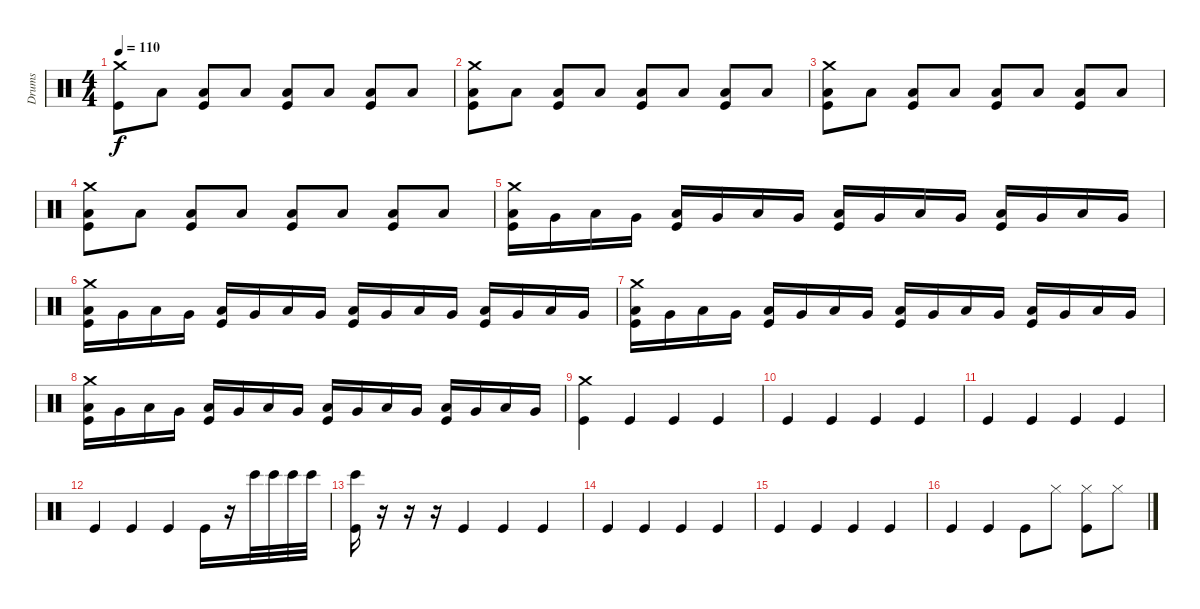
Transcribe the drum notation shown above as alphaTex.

\track ("Drums" "Drums") {instrument percussion}
\staff {score}
\articulation defaults
\ts (4 4)
\tempo 110
\clef neutral
\ks c
("Crash medium (hit)" "Kick (hit)").8{dy f} "Low Tom (hit)".8 ("Kick (hit)" "Low Tom (hit)").8 "Low Tom (hit)".8 ("Kick (hit)" "Low Tom (hit)").8 "Low Tom (hit)".8 ("Kick (hit)" "Low Tom (hit)").8 "Low Tom (hit)".8 |
("Crash medium (hit)" "Kick (hit)" "Low Tom (hit)").8 "Low Tom (hit)".8 ("Kick (hit)" "Low Tom (hit)").8 "Low Tom (hit)".8 ("Kick (hit)" "Low Tom (hit)").8 "Low Tom (hit)".8 ("Kick (hit)" "Low Tom (hit)").8 "Low Tom (hit)".8 |
("Crash medium (hit)" "Kick (hit)" "Low Tom (hit)").8 "Low Tom (hit)".8 ("Kick (hit)" "Low Tom (hit)").8 "Low Tom (hit)".8 ("Kick (hit)" "Low Tom (hit)").8 "Low Tom (hit)".8 ("Kick (hit)" "Low Tom (hit)").8 "Low Tom (hit)".8 |
("Crash medium (hit)" "Kick (hit)" "Low Tom (hit)").8 "Low Tom (hit)".8 ("Kick (hit)" "Low Tom (hit)").8 "Low Tom (hit)".8 ("Kick (hit)" "Low Tom (hit)").8 "Low Tom (hit)".8 ("Kick (hit)" "Low Tom (hit)").8 "Low Tom (hit)".8 |
("Crash medium (hit)" "Kick (hit)" "Low Tom (hit)").16 "Very Low Tom (hit)".16 "Low Tom (hit)".16 "Very Low Tom (hit)".16 ("Kick (hit)" "Low Tom (hit)").16 "Very Low Tom (hit)".16 "Low Tom (hit)".16 "Very Low Tom (hit)".16 ("Kick (hit)" "Low Tom (hit)").16 "Very Low Tom (hit)".16 "Low Tom (hit)".16 "Very Low Tom (hit)".16 ("Kick (hit)" "Low Tom (hit)").16 "Very Low Tom (hit)".16 "Low Tom (hit)".16 "Very Low Tom (hit)".16 |
("Crash medium (hit)" "Kick (hit)" "Low Tom (hit)").16 "Very Low Tom (hit)".16 "Low Tom (hit)".16 "Very Low Tom (hit)".16 ("Kick (hit)" "Low Tom (hit)").16 "Very Low Tom (hit)".16 "Low Tom (hit)".16 "Very Low Tom (hit)".16 ("Kick (hit)" "Low Tom (hit)").16 "Very Low Tom (hit)".16 "Low Tom (hit)".16 "Very Low Tom (hit)".16 ("Kick (hit)" "Low Tom (hit)").16 "Very Low Tom (hit)".16 "Low Tom (hit)".16 "Very Low Tom (hit)".16 |
("Crash medium (hit)" "Kick (hit)" "Low Tom (hit)").16 "Very Low Tom (hit)".16 "Low Tom (hit)".16 "Very Low Tom (hit)".16 ("Kick (hit)" "Low Tom (hit)").16 "Very Low Tom (hit)".16 "Low Tom (hit)".16 "Very Low Tom (hit)".16 ("Kick (hit)" "Low Tom (hit)").16 "Very Low Tom (hit)".16 "Low Tom (hit)".16 "Very Low Tom (hit)".16 ("Kick (hit)" "Low Tom (hit)").16 "Very Low Tom (hit)".16 "Low Tom (hit)".16 "Very Low Tom (hit)".16 |
("Crash medium (hit)" "Kick (hit)" "Low Tom (hit)").16 "Very Low Tom (hit)".16 "Low Tom (hit)".16 "Very Low Tom (hit)".16 ("Kick (hit)" "Low Tom (hit)").16 "Very Low Tom (hit)".16 "Low Tom (hit)".16 "Very Low Tom (hit)".16 ("Kick (hit)" "Low Tom (hit)").16 "Very Low Tom (hit)".16 "Low Tom (hit)".16 "Very Low Tom (hit)".16 ("Kick (hit)" "Low Tom (hit)").16 "Very Low Tom (hit)".16 "Low Tom (hit)".16 "Very Low Tom (hit)".16 |
("Crash medium (hit)" "Kick (hit)").4 "Kick (hit)".4 "Kick (hit)".4 "Kick (hit)".4 |
"Kick (hit)".4 "Kick (hit)".4 "Kick (hit)".4 "Kick (hit)".4 |
"Kick (hit)".4 "Kick (hit)".4 "Kick (hit)".4 "Kick (hit)".4 |
"Kick (hit)".4 "Kick (hit)".4 "Kick (hit)".4 "Kick (hit)".16 r.16 "Bongo High (hit)".32 "Bongo High (hit)".32 "Bongo High (hit)".32 "Bongo High (hit)".32 |
("Bongo High (hit)" "Kick (hit)").16 r.16 r.16 r.16 "Kick (hit)".4 "Kick (hit)".4 "Kick (hit)".4 |
"Kick (hit)".4 "Kick (hit)".4 "Kick (hit)".4 "Kick (hit)".4 |
"Kick (hit)".4 "Kick (hit)".4 "Kick (hit)".4 "Kick (hit)".4 |
"Kick (hit)".4 "Kick (hit)".4 "Kick (hit)".8 "Hi-Hat (closed)".8 ("Hi-Hat (closed)" "Kick (hit)").8 "Hi-Hat (closed)".8
